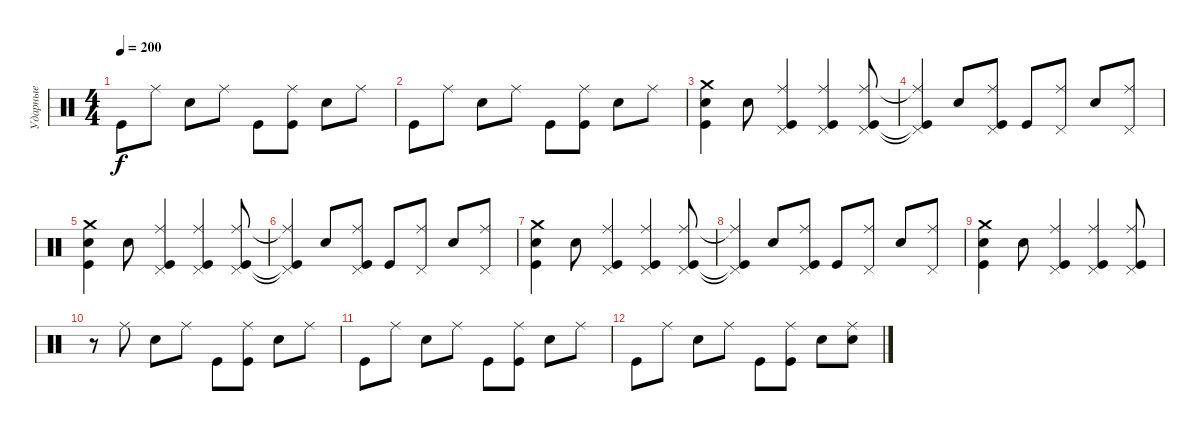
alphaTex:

\track ("Ударные" "Ударные") {instrument percussion}
\staff {score}
\articulation defaults
\ts (4 4)
\tempo 200
\clef neutral
\ks c "Kick (hit)".8{dy f} "Ride (middle)".8 "Electric Snare (hit)".8 "Ride (middle)".8 "Kick (hit)".8
("Ride (middle)" "Kick (hit)").8 "Electric Snare (hit)".8 "Ride (middle)".8 |
"Kick (hit)".8 "Ride (middle)".8 "Electric Snare (hit)".8 "Ride (middle)".8 "Kick (hit)".8 ("Ride (middle)" "Kick (hit)").8 "Electric Snare (hit)".8 "Ride (middle)".8 |
("Crash medium (hit)" "Electric Snare (hit)" "Kick (hit)").4 "Electric Snare (hit)".8 ("Ride (middle)" "Pedal Hi-Hat (hit)" "Kick (hit)").4 ("Ride (middle)" "Pedal Hi-Hat (hit)" "Kick (hit)").4 ("Ride (middle)" "Pedal Hi-Hat (hit)" "Kick (hit)").8 |
("Ride (middle)"{t} "Pedal Hi-Hat (hit)"{t} "Kick (hit)"{t}).4 "Electric Snare (hit)".8 ("Ride (middle)" "Pedal Hi-Hat (hit)" "Kick (hit)").8 "Kick (hit)".8 ("Ride (middle)" "Pedal Hi-Hat (hit)").8 "Electric Snare (hit)".8 ("Ride (middle)" "Pedal Hi-Hat (hit)").8 |
("Crash medium (hit)" "Electric Snare (hit)" "Kick (hit)").4 "Electric Snare (hit)".8 ("Ride (middle)" "Pedal Hi-Hat (hit)" "Kick (hit)").4 ("Ride (middle)" "Pedal Hi-Hat (hit)" "Kick (hit)").4 ("Ride (middle)" "Pedal Hi-Hat (hit)" "Kick (hit)").8 |
("Ride (middle)"{t} "Pedal Hi-Hat (hit)"{t} "Kick (hit)"{t}).4 "Electric Snare (hit)".8 ("Ride (middle)" "Pedal Hi-Hat (hit)" "Kick (hit)").8 "Kick (hit)".8 ("Ride (middle)" "Pedal Hi-Hat (hit)").8 "Electric Snare (hit)".8 ("Ride (middle)" "Pedal Hi-Hat (hit)").8 |
("Crash medium (hit)" "Electric Snare (hit)" "Kick (hit)").4 "Electric Snare (hit)".8 ("Ride (middle)" "Pedal Hi-Hat (hit)" "Kick (hit)").4 ("Ride (middle)" "Pedal Hi-Hat (hit)" "Kick (hit)").4 ("Ride (middle)" "Pedal Hi-Hat (hit)" "Kick (hit)").8 |
("Ride (middle)"{t} "Pedal Hi-Hat (hit)"{t} "Kick (hit)"{t}).4 "Electric Snare (hit)".8 ("Ride (middle)" "Pedal Hi-Hat (hit)" "Kick (hit)").8 "Kick (hit)".8 ("Ride (middle)" "Pedal Hi-Hat (hit)").8 "Electric Snare (hit)".8 ("Ride (middle)" "Pedal Hi-Hat (hit)").8 |
("Crash medium (hit)" "Electric Snare (hit)" "Kick (hit)").4 "Electric Snare (hit)".8 ("Ride (middle)" "Pedal Hi-Hat (hit)" "Kick (hit)").4 ("Ride (middle)" "Pedal Hi-Hat (hit)" "Kick (hit)").4 ("Ride (middle)" "Pedal Hi-Hat (hit)" "Kick (hit)").8 |
r.8 "Ride (middle)".8 "Electric Snare (hit)".8 "Ride (middle)".8 "Kick (hit)".8 ("Ride (middle)" "Kick (hit)").8 "Electric Snare (hit)".8 "Ride (middle)".8 |
"Kick (hit)".8 "Ride (middle)".8 "Electric Snare (hit)".8 "Ride (middle)".8 "Kick (hit)".8 ("Ride (middle)" "Kick (hit)").8 "Electric Snare (hit)".8 "Ride (middle)".8 |
"Kick (hit)".8 "Ride (middle)".8 "Electric Snare (hit)".8 "Ride (middle)".8 "Kick (hit)".8 ("Ride (middle)" "Kick (hit)").8 "Electric Snare (hit)".8 ("Ride (middle)" "Electric Snare (hit)").8
